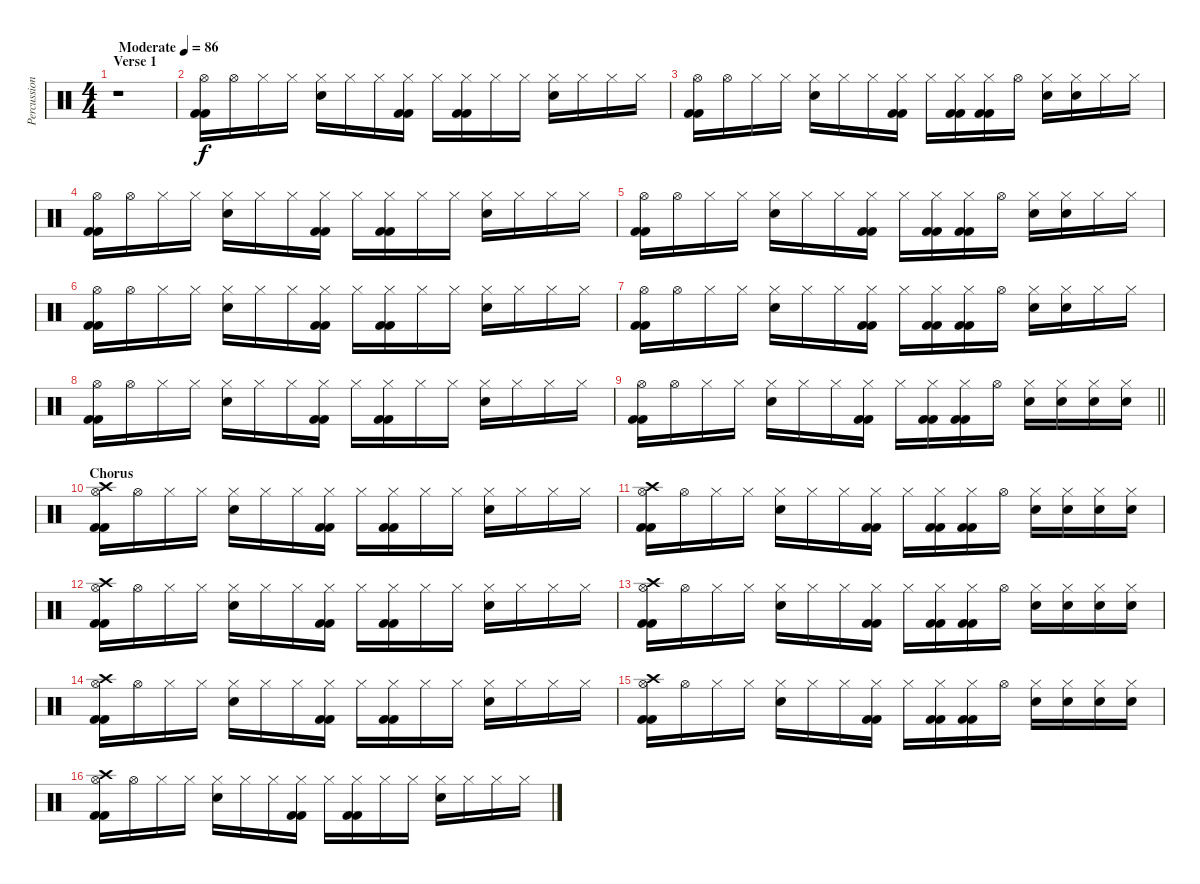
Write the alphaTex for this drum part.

\track ("Percussion" "Percussion") {instrument percussion}
\staff {score}
\articulation defaults
\ts (4 4)
\section ("" "Verse 1")
\tempo (86 "Moderate")
\clef neutral
\ks c
r.1{dy f} |
("Hi-Hat (open)" "Kick (hit) 2" "Kick (hit) 2").16 "Hi-Hat (open)".16 "Hi-Hat (closed)".16 "Hi-Hat (closed)".16 ("Hi-Hat (closed)" "Electric Snare (hit)").16 "Hi-Hat (closed)".16 "Hi-Hat (closed)".16 ("Hi-Hat (closed)" "Kick (hit) 2" "Kick (hit) 2").16 "Hi-Hat (closed)".16 ("Hi-Hat (closed)" "Kick (hit) 2" "Kick (hit) 2").16 "Hi-Hat (closed)".16 "Hi-Hat (closed)".16 ("Hi-Hat (closed)" "Electric Snare (hit)").16 "Hi-Hat (closed)".16 "Hi-Hat (closed)".16 "Hi-Hat (closed)".16 |
("Hi-Hat (open)" "Kick (hit) 2" "Kick (hit) 2").16 "Hi-Hat (open)".16 "Hi-Hat (closed)".16 "Hi-Hat (closed)".16 ("Hi-Hat (closed)" "Electric Snare (hit)").16 "Hi-Hat (closed)".16 "Hi-Hat (closed)".16 ("Hi-Hat (closed)" "Kick (hit) 2" "Kick (hit) 2").16 "Hi-Hat (closed)".16 ("Hi-Hat (closed)" "Kick (hit) 2" "Kick (hit) 2").16 ("Hi-Hat (closed)" "Kick (hit) 2" "Kick (hit) 2").16 "Hi-Hat (open)".16 ("Hi-Hat (closed)" "Electric Snare (hit)").16 ("Hi-Hat (closed)" "Electric Snare (hit)").16 "Hi-Hat (closed)".16 "Hi-Hat (closed)".16 |
("Hi-Hat (open)" "Kick (hit) 2" "Kick (hit) 2").16 "Hi-Hat (open)".16 "Hi-Hat (closed)".16 "Hi-Hat (closed)".16 ("Hi-Hat (closed)" "Electric Snare (hit)").16 "Hi-Hat (closed)".16 "Hi-Hat (closed)".16 ("Hi-Hat (closed)" "Kick (hit) 2" "Kick (hit) 2").16 "Hi-Hat (closed)".16 ("Hi-Hat (closed)" "Kick (hit) 2" "Kick (hit) 2").16 "Hi-Hat (closed)".16 "Hi-Hat (closed)".16 ("Hi-Hat (closed)" "Electric Snare (hit)").16 "Hi-Hat (closed)".16 "Hi-Hat (closed)".16 "Hi-Hat (closed)".16 |
("Hi-Hat (open)" "Kick (hit) 2" "Kick (hit) 2").16 "Hi-Hat (open)".16 "Hi-Hat (closed)".16 "Hi-Hat (closed)".16 ("Hi-Hat (closed)" "Electric Snare (hit)").16 "Hi-Hat (closed)".16 "Hi-Hat (closed)".16 ("Hi-Hat (closed)" "Kick (hit) 2" "Kick (hit) 2").16 "Hi-Hat (closed)".16 ("Hi-Hat (closed)" "Kick (hit) 2" "Kick (hit) 2").16 ("Hi-Hat (closed)" "Kick (hit) 2" "Kick (hit) 2").16 "Hi-Hat (open)".16 ("Hi-Hat (closed)" "Electric Snare (hit)").16 ("Hi-Hat (closed)" "Electric Snare (hit)").16 "Hi-Hat (closed)".16 "Hi-Hat (closed)".16 |
("Hi-Hat (open)" "Kick (hit) 2" "Kick (hit) 2").16 "Hi-Hat (open)".16 "Hi-Hat (closed)".16 "Hi-Hat (closed)".16 ("Hi-Hat (closed)" "Electric Snare (hit)").16 "Hi-Hat (closed)".16 "Hi-Hat (closed)".16 ("Hi-Hat (closed)" "Kick (hit) 2" "Kick (hit) 2").16 "Hi-Hat (closed)".16 ("Hi-Hat (closed)" "Kick (hit) 2" "Kick (hit) 2").16 "Hi-Hat (closed)".16 "Hi-Hat (closed)".16 ("Hi-Hat (closed)" "Electric Snare (hit)").16 "Hi-Hat (closed)".16 "Hi-Hat (closed)".16 "Hi-Hat (closed)".16 |
("Hi-Hat (open)" "Kick (hit) 2" "Kick (hit) 2").16 "Hi-Hat (open)".16 "Hi-Hat (closed)".16 "Hi-Hat (closed)".16 ("Hi-Hat (closed)" "Electric Snare (hit)").16 "Hi-Hat (closed)".16 "Hi-Hat (closed)".16 ("Hi-Hat (closed)" "Kick (hit) 2" "Kick (hit) 2").16 "Hi-Hat (closed)".16 ("Hi-Hat (closed)" "Kick (hit) 2" "Kick (hit) 2").16 ("Hi-Hat (closed)" "Kick (hit) 2" "Kick (hit) 2").16 "Hi-Hat (open)".16 ("Hi-Hat (closed)" "Electric Snare (hit)").16 ("Hi-Hat (closed)" "Electric Snare (hit)").16 "Hi-Hat (closed)".16 "Hi-Hat (closed)".16 |
("Hi-Hat (open)" "Kick (hit) 2" "Kick (hit) 2").16 "Hi-Hat (open)".16 "Hi-Hat (closed)".16 "Hi-Hat (closed)".16 ("Hi-Hat (closed)" "Electric Snare (hit)").16 "Hi-Hat (closed)".16 "Hi-Hat (closed)".16 ("Hi-Hat (closed)" "Kick (hit) 2" "Kick (hit) 2").16 "Hi-Hat (closed)".16 ("Hi-Hat (closed)" "Kick (hit) 2" "Kick (hit) 2").16 "Hi-Hat (closed)".16 "Hi-Hat (closed)".16 ("Hi-Hat (closed)" "Electric Snare (hit)").16 "Hi-Hat (closed)".16 "Hi-Hat (closed)".16 "Hi-Hat (closed)".16 |
\barLineRight lightlight
("Hi-Hat (open)" "Kick (hit) 2" "Kick (hit) 2").16 "Hi-Hat (open)".16 "Hi-Hat (closed)".16 "Hi-Hat (closed)".16 ("Hi-Hat (closed)" "Electric Snare (hit)").16 "Hi-Hat (closed)".16 "Hi-Hat (closed)".16 ("Hi-Hat (closed)" "Kick (hit) 2" "Kick (hit) 2").16 "Hi-Hat (closed)".16 ("Hi-Hat (closed)" "Kick (hit) 2" "Kick (hit) 2").16 ("Hi-Hat (closed)" "Kick (hit) 2" "Kick (hit) 2").16 "Hi-Hat (open)".16 ("Hi-Hat (closed)" "Electric Snare (hit)").16 ("Hi-Hat (closed)" "Electric Snare (hit)").16 ("Hi-Hat (closed)" "Electric Snare (hit)").16 ("Hi-Hat (closed)" "Electric Snare (hit)").16 |
\section ("" "Chorus")
("Hi-Hat (open)" "Crash high (hit)" "Kick (hit) 2" "Kick (hit) 2").16 "Hi-Hat (open)".16 "Hi-Hat (closed)".16 "Hi-Hat (closed)".16 ("Hi-Hat (closed)" "Electric Snare (hit)").16 "Hi-Hat (closed)".16 "Hi-Hat (closed)".16 ("Hi-Hat (closed)" "Kick (hit) 2" "Kick (hit) 2").16 "Hi-Hat (closed)".16 ("Hi-Hat (closed)" "Kick (hit) 2" "Kick (hit) 2").16 "Hi-Hat (closed)".16 "Hi-Hat (closed)".16 ("Hi-Hat (closed)" "Electric Snare (hit)").16 "Hi-Hat (closed)".16 "Hi-Hat (closed)".16 "Hi-Hat (closed)".16 |
("Hi-Hat (open)" "Crash high (hit)" "Kick (hit) 2" "Kick (hit) 2").16 "Hi-Hat (open)".16 "Hi-Hat (closed)".16 "Hi-Hat (closed)".16 ("Hi-Hat (closed)" "Electric Snare (hit)").16 "Hi-Hat (closed)".16 "Hi-Hat (closed)".16 ("Hi-Hat (closed)" "Kick (hit) 2" "Kick (hit) 2").16 "Hi-Hat (closed)".16 ("Hi-Hat (closed)" "Kick (hit) 2" "Kick (hit) 2").16 ("Hi-Hat (closed)" "Kick (hit) 2" "Kick (hit) 2").16 "Hi-Hat (open)".16 ("Hi-Hat (closed)" "Electric Snare (hit)").16 ("Hi-Hat (closed)" "Electric Snare (hit)").16 ("Hi-Hat (closed)" "Electric Snare (hit)").16 ("Hi-Hat (closed)" "Electric Snare (hit)").16 |
("Hi-Hat (open)" "Crash high (hit)" "Kick (hit) 2" "Kick (hit) 2").16 "Hi-Hat (open)".16 "Hi-Hat (closed)".16 "Hi-Hat (closed)".16 ("Hi-Hat (closed)" "Electric Snare (hit)").16 "Hi-Hat (closed)".16 "Hi-Hat (closed)".16 ("Hi-Hat (closed)" "Kick (hit) 2" "Kick (hit) 2").16 "Hi-Hat (closed)".16 ("Hi-Hat (closed)" "Kick (hit) 2" "Kick (hit) 2").16 "Hi-Hat (closed)".16 "Hi-Hat (closed)".16 ("Hi-Hat (closed)" "Electric Snare (hit)").16 "Hi-Hat (closed)".16 "Hi-Hat (closed)".16 "Hi-Hat (closed)".16 |
("Hi-Hat (open)" "Crash high (hit)" "Kick (hit) 2" "Kick (hit) 2").16 "Hi-Hat (open)".16 "Hi-Hat (closed)".16 "Hi-Hat (closed)".16 ("Hi-Hat (closed)" "Electric Snare (hit)").16 "Hi-Hat (closed)".16 "Hi-Hat (closed)".16 ("Hi-Hat (closed)" "Kick (hit) 2" "Kick (hit) 2").16 "Hi-Hat (closed)".16 ("Hi-Hat (closed)" "Kick (hit) 2" "Kick (hit) 2").16 ("Hi-Hat (closed)" "Kick (hit) 2" "Kick (hit) 2").16 "Hi-Hat (open)".16 ("Hi-Hat (closed)" "Electric Snare (hit)").16 ("Hi-Hat (closed)" "Electric Snare (hit)").16 ("Hi-Hat (closed)" "Electric Snare (hit)").16 ("Hi-Hat (closed)" "Electric Snare (hit)").16 |
("Hi-Hat (open)" "Crash high (hit)" "Kick (hit) 2" "Kick (hit) 2").16 "Hi-Hat (open)".16 "Hi-Hat (closed)".16 "Hi-Hat (closed)".16 ("Hi-Hat (closed)" "Electric Snare (hit)").16 "Hi-Hat (closed)".16 "Hi-Hat (closed)".16 ("Hi-Hat (closed)" "Kick (hit) 2" "Kick (hit) 2").16 "Hi-Hat (closed)".16 ("Hi-Hat (closed)" "Kick (hit) 2" "Kick (hit) 2").16 "Hi-Hat (closed)".16 "Hi-Hat (closed)".16 ("Hi-Hat (closed)" "Electric Snare (hit)").16 "Hi-Hat (closed)".16 "Hi-Hat (closed)".16 "Hi-Hat (closed)".16 |
("Hi-Hat (open)" "Crash high (hit)" "Kick (hit) 2" "Kick (hit) 2").16 "Hi-Hat (open)".16 "Hi-Hat (closed)".16 "Hi-Hat (closed)".16 ("Hi-Hat (closed)" "Electric Snare (hit)").16 "Hi-Hat (closed)".16 "Hi-Hat (closed)".16 ("Hi-Hat (closed)" "Kick (hit) 2" "Kick (hit) 2").16 "Hi-Hat (closed)".16 ("Hi-Hat (closed)" "Kick (hit) 2" "Kick (hit) 2").16 ("Hi-Hat (closed)" "Kick (hit) 2" "Kick (hit) 2").16 "Hi-Hat (open)".16 ("Hi-Hat (closed)" "Electric Snare (hit)").16 ("Hi-Hat (closed)" "Electric Snare (hit)").16 ("Hi-Hat (closed)" "Electric Snare (hit)").16 ("Hi-Hat (closed)" "Electric Snare (hit)").16 |
("Hi-Hat (open)" "Crash high (hit)" "Kick (hit) 2" "Kick (hit) 2").16 "Hi-Hat (open)".16 "Hi-Hat (closed)".16 "Hi-Hat (closed)".16 ("Hi-Hat (closed)" "Electric Snare (hit)").16 "Hi-Hat (closed)".16 "Hi-Hat (closed)".16 ("Hi-Hat (closed)" "Kick (hit) 2" "Kick (hit) 2").16 "Hi-Hat (closed)".16 ("Hi-Hat (closed)" "Kick (hit) 2" "Kick (hit) 2").16 "Hi-Hat (closed)".16 "Hi-Hat (closed)".16 ("Hi-Hat (closed)" "Electric Snare (hit)").16 "Hi-Hat (closed)".16 "Hi-Hat (closed)".16 "Hi-Hat (closed)".16
